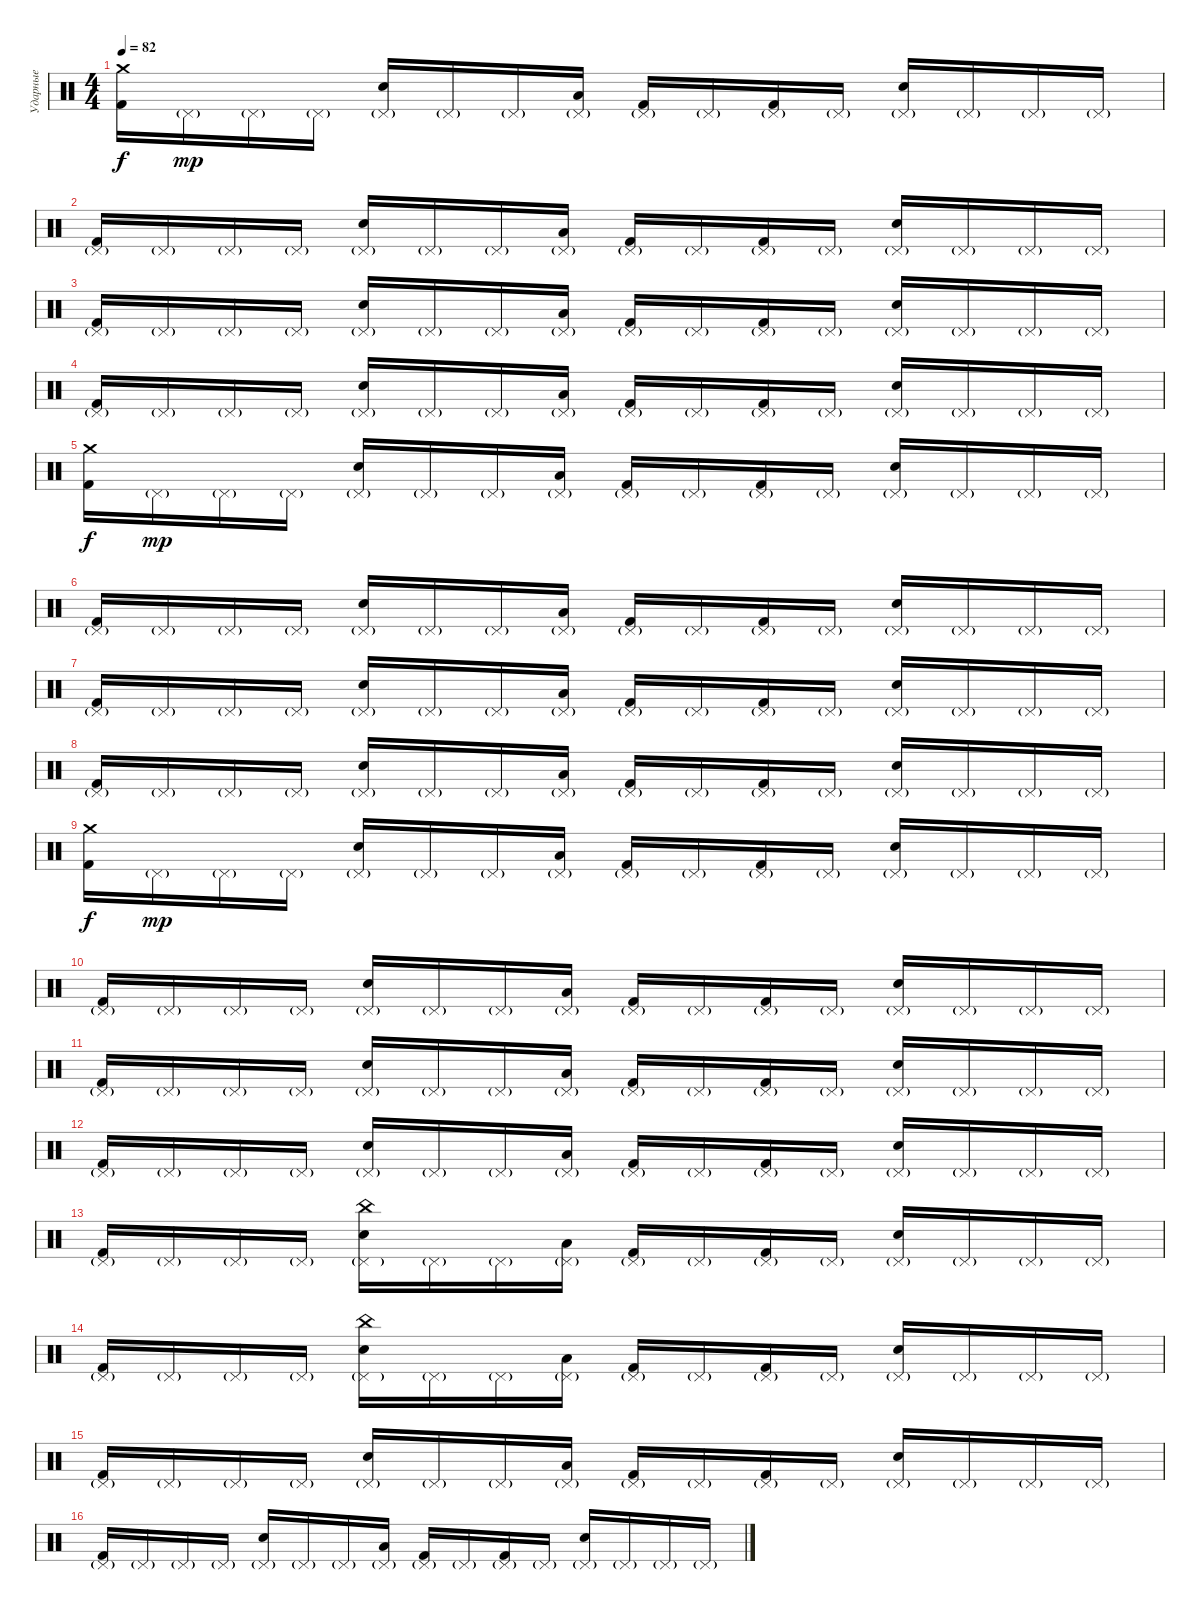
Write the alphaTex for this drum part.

\track ("Ударные" "Ударные") {instrument percussion}
\staff {score}
\articulation defaults
\ts (4 4)
\tempo 82
\clef neutral
\ks c
("Crash medium (hit)" "Kick (hit) 2").16{dy f} "Pedal Hi-Hat (hit)"{g}.16{dy mp} "Pedal Hi-Hat (hit)"{g}.16 "Pedal Hi-Hat (hit)"{g}.16 ("Pedal Hi-Hat (hit)"{g} "Electric Snare (hit)").16 "Pedal Hi-Hat (hit)"{g}.16 "Pedal Hi-Hat (hit)"{g}.16 ("Pedal Hi-Hat (hit)"{g} "Low Floor Tom (hit)").16 ("Pedal Hi-Hat (hit)"{g} "Kick (hit) 2").16 "Pedal Hi-Hat (hit)"{g}.16 ("Pedal Hi-Hat (hit)"{g} "Kick (hit) 2").16 "Pedal Hi-Hat (hit)"{g}.16 ("Pedal Hi-Hat (hit)"{g} "Electric Snare (hit)").16 "Pedal Hi-Hat (hit)"{g}.16 "Pedal Hi-Hat (hit)"{g}.16 "Pedal Hi-Hat (hit)"{g}.16 |
("Pedal Hi-Hat (hit)"{g} "Kick (hit) 2").16 "Pedal Hi-Hat (hit)"{g}.16 "Pedal Hi-Hat (hit)"{g}.16 "Pedal Hi-Hat (hit)"{g}.16 ("Pedal Hi-Hat (hit)"{g} "Electric Snare (hit)").16 "Pedal Hi-Hat (hit)"{g}.16 "Pedal Hi-Hat (hit)"{g}.16 ("Pedal Hi-Hat (hit)"{g} "Low Floor Tom (hit)").16 ("Pedal Hi-Hat (hit)"{g} "Kick (hit) 2").16 "Pedal Hi-Hat (hit)"{g}.16 ("Pedal Hi-Hat (hit)"{g} "Kick (hit) 2").16 "Pedal Hi-Hat (hit)"{g}.16 ("Pedal Hi-Hat (hit)"{g} "Electric Snare (hit)").16 "Pedal Hi-Hat (hit)"{g}.16 "Pedal Hi-Hat (hit)"{g}.16 "Pedal Hi-Hat (hit)"{g}.16 |
("Pedal Hi-Hat (hit)"{g} "Kick (hit) 2").16 "Pedal Hi-Hat (hit)"{g}.16 "Pedal Hi-Hat (hit)"{g}.16 "Pedal Hi-Hat (hit)"{g}.16 ("Pedal Hi-Hat (hit)"{g} "Electric Snare (hit)").16 "Pedal Hi-Hat (hit)"{g}.16 "Pedal Hi-Hat (hit)"{g}.16 ("Pedal Hi-Hat (hit)"{g} "Low Floor Tom (hit)").16 ("Pedal Hi-Hat (hit)"{g} "Kick (hit) 2").16 "Pedal Hi-Hat (hit)"{g}.16 ("Pedal Hi-Hat (hit)"{g} "Kick (hit) 2").16 "Pedal Hi-Hat (hit)"{g}.16 ("Pedal Hi-Hat (hit)"{g} "Electric Snare (hit)").16 "Pedal Hi-Hat (hit)"{g}.16 "Pedal Hi-Hat (hit)"{g}.16 "Pedal Hi-Hat (hit)"{g}.16 |
("Pedal Hi-Hat (hit)"{g} "Kick (hit) 2").16 "Pedal Hi-Hat (hit)"{g}.16 "Pedal Hi-Hat (hit)"{g}.16 "Pedal Hi-Hat (hit)"{g}.16 ("Pedal Hi-Hat (hit)"{g} "Electric Snare (hit)").16 "Pedal Hi-Hat (hit)"{g}.16 "Pedal Hi-Hat (hit)"{g}.16 ("Pedal Hi-Hat (hit)"{g} "Low Floor Tom (hit)").16 ("Pedal Hi-Hat (hit)"{g} "Kick (hit) 2").16 "Pedal Hi-Hat (hit)"{g}.16 ("Pedal Hi-Hat (hit)"{g} "Kick (hit) 2").16 "Pedal Hi-Hat (hit)"{g}.16 ("Pedal Hi-Hat (hit)"{g} "Electric Snare (hit)").16 "Pedal Hi-Hat (hit)"{g}.16 "Pedal Hi-Hat (hit)"{g}.16 "Pedal Hi-Hat (hit)"{g}.16 |
("Crash medium (hit)" "Kick (hit) 2").16{dy f} "Pedal Hi-Hat (hit)"{g}.16{dy mp} "Pedal Hi-Hat (hit)"{g}.16 "Pedal Hi-Hat (hit)"{g}.16 ("Pedal Hi-Hat (hit)"{g} "Electric Snare (hit)").16 "Pedal Hi-Hat (hit)"{g}.16 "Pedal Hi-Hat (hit)"{g}.16 ("Pedal Hi-Hat (hit)"{g} "Low Floor Tom (hit)").16 ("Pedal Hi-Hat (hit)"{g} "Kick (hit) 2").16 "Pedal Hi-Hat (hit)"{g}.16 ("Pedal Hi-Hat (hit)"{g} "Kick (hit) 2").16 "Pedal Hi-Hat (hit)"{g}.16 ("Pedal Hi-Hat (hit)"{g} "Electric Snare (hit)").16 "Pedal Hi-Hat (hit)"{g}.16 "Pedal Hi-Hat (hit)"{g}.16 "Pedal Hi-Hat (hit)"{g}.16 |
("Pedal Hi-Hat (hit)"{g} "Kick (hit) 2").16 "Pedal Hi-Hat (hit)"{g}.16 "Pedal Hi-Hat (hit)"{g}.16 "Pedal Hi-Hat (hit)"{g}.16 ("Pedal Hi-Hat (hit)"{g} "Electric Snare (hit)").16 "Pedal Hi-Hat (hit)"{g}.16 "Pedal Hi-Hat (hit)"{g}.16 ("Pedal Hi-Hat (hit)"{g} "Low Floor Tom (hit)").16 ("Pedal Hi-Hat (hit)"{g} "Kick (hit) 2").16 "Pedal Hi-Hat (hit)"{g}.16 ("Pedal Hi-Hat (hit)"{g} "Kick (hit) 2").16 "Pedal Hi-Hat (hit)"{g}.16 ("Pedal Hi-Hat (hit)"{g} "Electric Snare (hit)").16 "Pedal Hi-Hat (hit)"{g}.16 "Pedal Hi-Hat (hit)"{g}.16 "Pedal Hi-Hat (hit)"{g}.16 |
("Pedal Hi-Hat (hit)"{g} "Kick (hit) 2").16 "Pedal Hi-Hat (hit)"{g}.16 "Pedal Hi-Hat (hit)"{g}.16 "Pedal Hi-Hat (hit)"{g}.16 ("Pedal Hi-Hat (hit)"{g} "Electric Snare (hit)").16 "Pedal Hi-Hat (hit)"{g}.16 "Pedal Hi-Hat (hit)"{g}.16 ("Pedal Hi-Hat (hit)"{g} "Low Floor Tom (hit)").16 ("Pedal Hi-Hat (hit)"{g} "Kick (hit) 2").16 "Pedal Hi-Hat (hit)"{g}.16 ("Pedal Hi-Hat (hit)"{g} "Kick (hit) 2").16 "Pedal Hi-Hat (hit)"{g}.16 ("Pedal Hi-Hat (hit)"{g} "Electric Snare (hit)").16 "Pedal Hi-Hat (hit)"{g}.16 "Pedal Hi-Hat (hit)"{g}.16 "Pedal Hi-Hat (hit)"{g}.16 |
("Pedal Hi-Hat (hit)"{g} "Kick (hit) 2").16 "Pedal Hi-Hat (hit)"{g}.16 "Pedal Hi-Hat (hit)"{g}.16 "Pedal Hi-Hat (hit)"{g}.16 ("Pedal Hi-Hat (hit)"{g} "Electric Snare (hit)").16 "Pedal Hi-Hat (hit)"{g}.16 "Pedal Hi-Hat (hit)"{g}.16 ("Pedal Hi-Hat (hit)"{g} "Low Floor Tom (hit)").16 ("Pedal Hi-Hat (hit)"{g} "Kick (hit) 2").16 "Pedal Hi-Hat (hit)"{g}.16 ("Pedal Hi-Hat (hit)"{g} "Kick (hit) 2").16 "Pedal Hi-Hat (hit)"{g}.16 ("Pedal Hi-Hat (hit)"{g} "Electric Snare (hit)").16 "Pedal Hi-Hat (hit)"{g}.16 "Pedal Hi-Hat (hit)"{g}.16 "Pedal Hi-Hat (hit)"{g}.16 |
("Crash medium (hit)" "Kick (hit) 2").16{dy f} "Pedal Hi-Hat (hit)"{g}.16{dy mp} "Pedal Hi-Hat (hit)"{g}.16 "Pedal Hi-Hat (hit)"{g}.16 ("Pedal Hi-Hat (hit)"{g} "Electric Snare (hit)").16 "Pedal Hi-Hat (hit)"{g}.16 "Pedal Hi-Hat (hit)"{g}.16 ("Pedal Hi-Hat (hit)"{g} "Low Floor Tom (hit)").16 ("Pedal Hi-Hat (hit)"{g} "Kick (hit) 2").16 "Pedal Hi-Hat (hit)"{g}.16 ("Pedal Hi-Hat (hit)"{g} "Kick (hit) 2").16 "Pedal Hi-Hat (hit)"{g}.16 ("Pedal Hi-Hat (hit)"{g} "Electric Snare (hit)").16 "Pedal Hi-Hat (hit)"{g}.16 "Pedal Hi-Hat (hit)"{g}.16 "Pedal Hi-Hat (hit)"{g}.16 |
("Pedal Hi-Hat (hit)"{g} "Kick (hit) 2").16 "Pedal Hi-Hat (hit)"{g}.16 "Pedal Hi-Hat (hit)"{g}.16 "Pedal Hi-Hat (hit)"{g}.16 ("Pedal Hi-Hat (hit)"{g} "Electric Snare (hit)").16 "Pedal Hi-Hat (hit)"{g}.16 "Pedal Hi-Hat (hit)"{g}.16 ("Pedal Hi-Hat (hit)"{g} "Low Floor Tom (hit)").16 ("Pedal Hi-Hat (hit)"{g} "Kick (hit) 2").16 "Pedal Hi-Hat (hit)"{g}.16 ("Pedal Hi-Hat (hit)"{g} "Kick (hit) 2").16 "Pedal Hi-Hat (hit)"{g}.16 ("Pedal Hi-Hat (hit)"{g} "Electric Snare (hit)").16 "Pedal Hi-Hat (hit)"{g}.16 "Pedal Hi-Hat (hit)"{g}.16 "Pedal Hi-Hat (hit)"{g}.16 |
("Pedal Hi-Hat (hit)"{g} "Kick (hit) 2").16 "Pedal Hi-Hat (hit)"{g}.16 "Pedal Hi-Hat (hit)"{g}.16 "Pedal Hi-Hat (hit)"{g}.16 ("Pedal Hi-Hat (hit)"{g} "Electric Snare (hit)").16 "Pedal Hi-Hat (hit)"{g}.16 "Pedal Hi-Hat (hit)"{g}.16 ("Pedal Hi-Hat (hit)"{g} "Low Floor Tom (hit)").16 ("Pedal Hi-Hat (hit)"{g} "Kick (hit) 2").16 "Pedal Hi-Hat (hit)"{g}.16 ("Pedal Hi-Hat (hit)"{g} "Kick (hit) 2").16 "Pedal Hi-Hat (hit)"{g}.16 ("Pedal Hi-Hat (hit)"{g} "Electric Snare (hit)").16 "Pedal Hi-Hat (hit)"{g}.16 "Pedal Hi-Hat (hit)"{g}.16 "Pedal Hi-Hat (hit)"{g}.16 |
("Pedal Hi-Hat (hit)"{g} "Kick (hit) 2").16 "Pedal Hi-Hat (hit)"{g}.16 "Pedal Hi-Hat (hit)"{g}.16 "Pedal Hi-Hat (hit)"{g}.16 ("Pedal Hi-Hat (hit)"{g} "Electric Snare (hit)").16 "Pedal Hi-Hat (hit)"{g}.16 "Pedal Hi-Hat (hit)"{g}.16 ("Pedal Hi-Hat (hit)"{g} "Low Floor Tom (hit)").16 ("Pedal Hi-Hat (hit)"{g} "Kick (hit) 2").16 "Pedal Hi-Hat (hit)"{g}.16 ("Pedal Hi-Hat (hit)"{g} "Kick (hit) 2").16 "Pedal Hi-Hat (hit)"{g}.16 ("Pedal Hi-Hat (hit)"{g} "Electric Snare (hit)").16 "Pedal Hi-Hat (hit)"{g}.16 "Pedal Hi-Hat (hit)"{g}.16 "Pedal Hi-Hat (hit)"{g}.16 |
("Pedal Hi-Hat (hit)"{g} "Kick (hit) 2").16 "Pedal Hi-Hat (hit)"{g}.16 "Pedal Hi-Hat (hit)"{g}.16 "Pedal Hi-Hat (hit)"{g}.16 ("Pedal Hi-Hat (hit)"{g} "Electric Snare (hit)" "China (hit)").16 "Pedal Hi-Hat (hit)"{g}.16 "Pedal Hi-Hat (hit)"{g}.16 ("Pedal Hi-Hat (hit)"{g} "Low Floor Tom (hit)").16 ("Pedal Hi-Hat (hit)"{g} "Kick (hit) 2").16 "Pedal Hi-Hat (hit)"{g}.16 ("Pedal Hi-Hat (hit)"{g} "Kick (hit) 2").16 "Pedal Hi-Hat (hit)"{g}.16 ("Pedal Hi-Hat (hit)"{g} "Electric Snare (hit)").16 "Pedal Hi-Hat (hit)"{g}.16 "Pedal Hi-Hat (hit)"{g}.16 "Pedal Hi-Hat (hit)"{g}.16 |
("Pedal Hi-Hat (hit)"{g} "Kick (hit) 2").16 "Pedal Hi-Hat (hit)"{g}.16 "Pedal Hi-Hat (hit)"{g}.16 "Pedal Hi-Hat (hit)"{g}.16 ("Pedal Hi-Hat (hit)"{g} "Electric Snare (hit)" "China (hit)").16 "Pedal Hi-Hat (hit)"{g}.16 "Pedal Hi-Hat (hit)"{g}.16 ("Pedal Hi-Hat (hit)"{g} "Low Floor Tom (hit)").16 ("Pedal Hi-Hat (hit)"{g} "Kick (hit) 2").16 "Pedal Hi-Hat (hit)"{g}.16 ("Pedal Hi-Hat (hit)"{g} "Kick (hit) 2").16 "Pedal Hi-Hat (hit)"{g}.16 ("Pedal Hi-Hat (hit)"{g} "Electric Snare (hit)").16 "Pedal Hi-Hat (hit)"{g}.16 "Pedal Hi-Hat (hit)"{g}.16 "Pedal Hi-Hat (hit)"{g}.16 |
("Pedal Hi-Hat (hit)"{g} "Kick (hit) 2").16 "Pedal Hi-Hat (hit)"{g}.16 "Pedal Hi-Hat (hit)"{g}.16 "Pedal Hi-Hat (hit)"{g}.16 ("Pedal Hi-Hat (hit)"{g} "Electric Snare (hit)").16 "Pedal Hi-Hat (hit)"{g}.16 "Pedal Hi-Hat (hit)"{g}.16 ("Pedal Hi-Hat (hit)"{g} "Low Floor Tom (hit)").16 ("Pedal Hi-Hat (hit)"{g} "Kick (hit) 2").16 "Pedal Hi-Hat (hit)"{g}.16 ("Pedal Hi-Hat (hit)"{g} "Kick (hit) 2").16 "Pedal Hi-Hat (hit)"{g}.16 ("Pedal Hi-Hat (hit)"{g} "Electric Snare (hit)").16 "Pedal Hi-Hat (hit)"{g}.16 "Pedal Hi-Hat (hit)"{g}.16 "Pedal Hi-Hat (hit)"{g}.16 |
("Pedal Hi-Hat (hit)"{g} "Kick (hit) 2").16 "Pedal Hi-Hat (hit)"{g}.16 "Pedal Hi-Hat (hit)"{g}.16 "Pedal Hi-Hat (hit)"{g}.16 ("Pedal Hi-Hat (hit)"{g} "Electric Snare (hit)").16 "Pedal Hi-Hat (hit)"{g}.16 "Pedal Hi-Hat (hit)"{g}.16 ("Pedal Hi-Hat (hit)"{g} "Low Floor Tom (hit)").16 ("Pedal Hi-Hat (hit)"{g} "Kick (hit) 2").16 "Pedal Hi-Hat (hit)"{g}.16 ("Pedal Hi-Hat (hit)"{g} "Kick (hit) 2").16 "Pedal Hi-Hat (hit)"{g}.16 ("Pedal Hi-Hat (hit)"{g} "Electric Snare (hit)").16 "Pedal Hi-Hat (hit)"{g}.16 "Pedal Hi-Hat (hit)"{g}.16 "Pedal Hi-Hat (hit)"{g}.16
